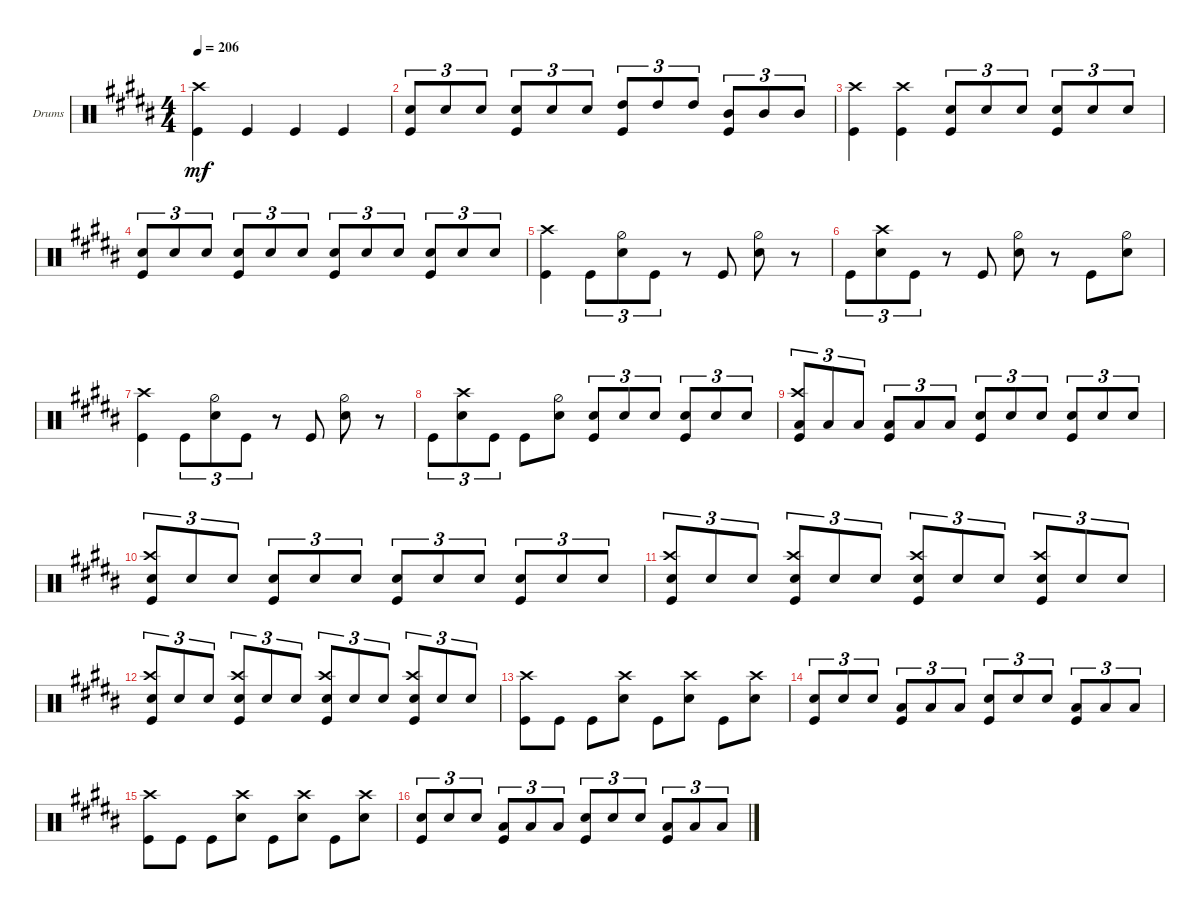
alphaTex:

\defaultSystemsLayout 4
\bracketExtendMode groupsimilarinstruments
\firstSystemTrackNameOrientation horizontal
\otherSystemsTrackNameOrientation horizontal
\track ("Drums" "Drums") {instrument percussion}
\staff {score}
\articulation defaults
\ts (4 4)
\tempo 206
\clef neutral
\ks b
("Kick (hit)" "Crash high (hit)").4{dy mf} "Kick (hit)".4 "Kick (hit)".4 "Kick (hit)".4 |
("Kick (hit)" "Snare (hit) 2").8{tu (3 2)} "Snare (hit) 2".8{tu (3 2)} "Snare (hit) 2".8{tu (3 2)} ("Kick (hit)" "Snare (hit) 2").8{tu (3 2)} "Snare (hit) 2".8{tu (3 2)} "Snare (hit) 2".8{tu (3 2)} ("Kick (hit)" "High Tom (hit)").8{tu (3 2)} "High Tom (hit)".8{tu (3 2)} "High Tom (hit)".8{tu (3 2)} ("Mid Tom (hit)" "Kick (hit)").8{tu (3 2)} "Mid Tom (hit)".8{tu (3 2)} "Mid Tom (hit)".8{tu (3 2)} |
("Kick (hit)" "Crash high (hit)").4 ("Kick (hit)" "Crash high (hit)").4 ("Snare (hit) 2" "Kick (hit)").8{tu (3 2)} "Snare (hit) 2".8{tu (3 2)} "Snare (hit) 2".8{tu (3 2)} ("Snare (hit) 2" "Kick (hit)").8{tu (3 2)} "Snare (hit) 2".8{tu (3 2)} "Snare (hit) 2".8{tu (3 2)} |
("Snare (hit) 2" "Kick (hit)").8{tu (3 2)} "Snare (hit) 2".8{tu (3 2)} "Snare (hit) 2".8{tu (3 2)} ("Snare (hit) 2" "Kick (hit)").8{tu (3 2)} "Snare (hit) 2".8{tu (3 2)} "Snare (hit) 2".8{tu (3 2)} ("Snare (hit) 2" "Kick (hit)").8{tu (3 2)} "Snare (hit) 2".8{tu (3 2)} "Snare (hit) 2".8{tu (3 2)} ("Snare (hit) 2" "Kick (hit)").8{tu (3 2)} "Snare (hit) 2".8{tu (3 2)} "Snare (hit) 2".8{tu (3 2)} |
("Kick (hit)" "Crash high (hit)").4 "Kick (hit)".8{tu (3 2)} ("Snare (hit) 2" "Hi-Hat (half)").8{tu (3 2)} "Kick (hit)".8{tu (3 2)} r.8 "Kick (hit)".8 ("Snare (hit) 2" "Hi-Hat (half)").8 r.8 |
"Kick (hit)".8{tu (3 2)} ("Snare (hit) 2" "Crash high (hit)").8{tu (3 2)} "Kick (hit)".8{tu (3 2)} r.8 "Kick (hit)".8 ("Snare (hit) 2" "Hi-Hat (half)").8 r.8 "Kick (hit)".8 ("Snare (hit) 2" "Hi-Hat (half)").8 |
("Kick (hit)" "Crash high (hit)").4 "Kick (hit)".8{tu (3 2)} ("Snare (hit) 2" "Hi-Hat (half)").8{tu (3 2)} "Kick (hit)".8{tu (3 2)} r.8 "Kick (hit)".8 ("Snare (hit) 2" "Hi-Hat (half)").8 r.8 |
"Kick (hit)".8{tu (3 2)} ("Snare (hit) 2" "Crash high (hit)").8{tu (3 2)} "Kick (hit)".8{tu (3 2)} "Kick (hit)".8 ("Snare (hit) 2" "Hi-Hat (half)").8 ("Snare (hit) 2" "Kick (hit)").8{tu (3 2)} "Snare (hit) 2".8{tu (3 2)} "Snare (hit) 2".8{tu (3 2)} ("Snare (hit) 2" "Kick (hit)").8{tu (3 2)} "Snare (hit) 2".8{tu (3 2)} "Snare (hit) 2".8{tu (3 2)} |
("Kick (hit)" "Crash high (hit)" "Low Tom (hit)").8{tu (3 2)} "Low Tom (hit)".8{tu (3 2)} "Low Tom (hit)".8{tu (3 2)} ("Kick (hit)" "Low Tom (hit)").8{tu (3 2)} "Low Tom (hit)".8{tu (3 2)} "Low Tom (hit)".8{tu (3 2)} ("Snare (hit) 2" "Kick (hit)").8{tu (3 2)} "Snare (hit) 2".8{tu (3 2)} "Snare (hit) 2".8{tu (3 2)} ("Snare (hit) 2" "Kick (hit)").8{tu (3 2)} "Snare (hit) 2".8{tu (3 2)} "Snare (hit) 2".8{tu (3 2)} |
("Snare (hit) 2" "Kick (hit)" "Crash high (hit)").8{tu (3 2)} "Snare (hit) 2".8{tu (3 2)} "Snare (hit) 2".8{tu (3 2)} ("Snare (hit) 2" "Kick (hit)").8{tu (3 2)} "Snare (hit) 2".8{tu (3 2)} "Snare (hit) 2".8{tu (3 2)} ("Snare (hit) 2" "Kick (hit)").8{tu (3 2)} "Snare (hit) 2".8{tu (3 2)} "Snare (hit) 2".8{tu (3 2)} ("Snare (hit) 2" "Kick (hit)").8{tu (3 2)} "Snare (hit) 2".8{tu (3 2)} "Snare (hit) 2".8{tu (3 2)} |
("Snare (hit) 2" "Kick (hit)" "Crash high (hit)").8{tu (3 2)} "Snare (hit) 2".8{tu (3 2)} "Snare (hit) 2".8{tu (3 2)} ("Snare (hit) 2" "Kick (hit)" "Crash high (hit)").8{tu (3 2)} "Snare (hit) 2".8{tu (3 2)} "Snare (hit) 2".8{tu (3 2)} ("Snare (hit) 2" "Kick (hit)" "Crash high (hit)").8{tu (3 2)} "Snare (hit) 2".8{tu (3 2)} "Snare (hit) 2".8{tu (3 2)} ("Snare (hit) 2" "Kick (hit)" "Crash high (hit)").8{tu (3 2)} "Snare (hit) 2".8{tu (3 2)} "Snare (hit) 2".8{tu (3 2)} |
("Snare (hit) 2" "Kick (hit)" "Crash high (hit)").8{tu (3 2)} "Snare (hit) 2".8{tu (3 2)} "Snare (hit) 2".8{tu (3 2)} ("Snare (hit) 2" "Kick (hit)" "Crash high (hit)").8{tu (3 2)} "Snare (hit) 2".8{tu (3 2)} "Snare (hit) 2".8{tu (3 2)} ("Snare (hit) 2" "Kick (hit)" "Crash high (hit)").8{tu (3 2)} "Snare (hit) 2".8{tu (3 2)} "Snare (hit) 2".8{tu (3 2)} ("Snare (hit) 2" "Kick (hit)" "Crash high (hit)").8{tu (3 2)} "Snare (hit) 2".8{tu (3 2)} "Snare (hit) 2".8{tu (3 2)} |
("Kick (hit)" "Crash high (hit)").8 "Kick (hit)".8 "Kick (hit)".8 ("Snare (hit) 2" "Crash high (hit)").8 "Kick (hit)".8 ("Snare (hit) 2" "Crash high (hit)").8 "Kick (hit)".8 ("Snare (hit) 2" "Crash high (hit)").8 |
("Snare (hit) 2" "Kick (hit)").8{tu (3 2)} "Snare (hit) 2".8{tu (3 2)} "Snare (hit) 2".8{tu (3 2)} ("Low Tom (hit)" "Kick (hit)").8{tu (3 2)} "Low Tom (hit)".8{tu (3 2)} "Low Tom (hit)".8{tu (3 2)} ("Snare (hit) 2" "Kick (hit)").8{tu (3 2)} "Snare (hit) 2".8{tu (3 2)} "Snare (hit) 2".8{tu (3 2)} ("Low Tom (hit)" "Kick (hit)").8{tu (3 2)} "Low Tom (hit)".8{tu (3 2)} "Low Tom (hit)".8{tu (3 2)} |
("Kick (hit)" "Crash high (hit)").8 "Kick (hit)".8 "Kick (hit)".8 ("Snare (hit) 2" "Crash high (hit)").8 "Kick (hit)".8 ("Snare (hit) 2" "Crash high (hit)").8 "Kick (hit)".8 ("Snare (hit) 2" "Crash high (hit)").8 |
("Snare (hit) 2" "Kick (hit)").8{tu (3 2)} "Snare (hit) 2".8{tu (3 2)} "Snare (hit) 2".8{tu (3 2)} ("Low Tom (hit)" "Kick (hit)").8{tu (3 2)} "Low Tom (hit)".8{tu (3 2)} "Low Tom (hit)".8{tu (3 2)} ("Snare (hit) 2" "Kick (hit)").8{tu (3 2)} "Snare (hit) 2".8{tu (3 2)} "Snare (hit) 2".8{tu (3 2)} ("Low Tom (hit)" "Kick (hit)").8{tu (3 2)} "Low Tom (hit)".8{tu (3 2)} "Low Tom (hit)".8{tu (3 2)}
